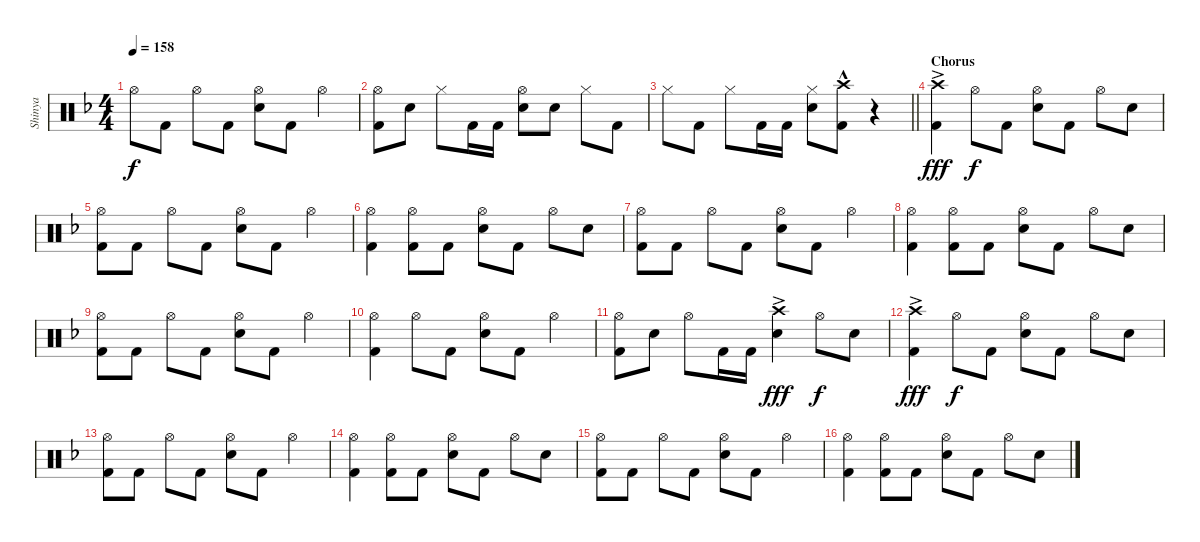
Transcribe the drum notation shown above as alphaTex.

\track ("Shinya" "Shinya") {instrument percussion}
\staff {score}
\articulation defaults
\ts (4 4)
\tempo 158
\clef neutral
\ks f "Hi-Hat (open)".8{dy f} "Kick (hit) 2".8 "Hi-Hat (open)".8 "Kick (hit) 2".8
("Hi-Hat (open)" "Snare (hit) 2").8 "Kick (hit) 2".8 "Hi-Hat (open)".4 |
("Hi-Hat (open)" "Kick (hit) 2").8 "Snare (hit) 2".8 "Hi-Hat (closed)".8 "Kick (hit) 2".16 "Kick (hit) 2".16 ("Hi-Hat (open)" "Snare (hit) 2").8 "Snare (hit) 2".8 "Hi-Hat (closed)".8 "Kick (hit) 2".8 |
\barLineRight lightlight "Hi-Hat (closed)".8 "Kick (hit) 2".8 "Hi-Hat (closed)".8 "Kick (hit) 2".16 "Kick (hit) 2".16
("Hi-Hat (closed)" "Snare (hit) 2").8 ("Crash high (hit)" "Kick (hit) 2"{hac}).8 r.4 |
\section ("" "Chorus")
("Crash high (hit)"{ac} "Kick (hit) 2").4{dy fff} "Hi-Hat (open)".8{dy f} "Kick (hit) 2".8 ("Hi-Hat (open)" "Snare (hit) 2").8 "Kick (hit) 2".8 "Hi-Hat (open)".8 "Snare (hit) 2".8 |
("Hi-Hat (open)" "Kick (hit) 2").8 "Kick (hit) 2".8 "Hi-Hat (open)".8 "Kick (hit) 2".8 ("Hi-Hat (open)" "Snare (hit) 2").8 "Kick (hit) 2".8 "Hi-Hat (open)".4 |
("Hi-Hat (open)" "Kick (hit) 2").4 ("Hi-Hat (open)" "Kick (hit) 2").8 "Kick (hit) 2".8 ("Hi-Hat (open)" "Snare (hit) 2").8 "Kick (hit) 2".8 "Hi-Hat (open)".8 "Snare (hit) 2".8 |
("Hi-Hat (open)" "Kick (hit) 2").8 "Kick (hit) 2".8 "Hi-Hat (open)".8 "Kick (hit) 2".8 ("Hi-Hat (open)" "Snare (hit) 2").8 "Kick (hit) 2".8 "Hi-Hat (open)".4 |
("Hi-Hat (open)" "Kick (hit) 2").4 ("Hi-Hat (open)" "Kick (hit) 2").8 "Kick (hit) 2".8 ("Hi-Hat (open)" "Snare (hit) 2").8 "Kick (hit) 2".8 "Hi-Hat (open)".8 "Snare (hit) 2".8 |
("Hi-Hat (open)" "Kick (hit) 2").8 "Kick (hit) 2".8 "Hi-Hat (open)".8 "Kick (hit) 2".8 ("Hi-Hat (open)" "Snare (hit) 2").8 "Kick (hit) 2".8 "Hi-Hat (open)".4 |
("Hi-Hat (open)" "Kick (hit) 2").4 "Hi-Hat (open)".8 "Kick (hit) 2".8 ("Hi-Hat (open)" "Snare (hit) 2").8 "Kick (hit) 2".8 "Hi-Hat (open)".4 |
("Hi-Hat (open)" "Kick (hit) 2").8 "Snare (hit) 2".8 "Hi-Hat (open)".8 "Kick (hit) 2".16 "Kick (hit) 2".16 ("Crash high (hit)"{ac} "Snare (hit) 2").4{dy fff} "Hi-Hat (open)".8{dy f} "Snare (hit) 2".8 |
("Crash high (hit)"{ac} "Kick (hit) 2").4{dy fff} "Hi-Hat (open)".8{dy f} "Kick (hit) 2".8 ("Hi-Hat (open)" "Snare (hit) 2").8 "Kick (hit) 2".8 "Hi-Hat (open)".8 "Snare (hit) 2".8 |
("Hi-Hat (open)" "Kick (hit) 2").8 "Kick (hit) 2".8 "Hi-Hat (open)".8 "Kick (hit) 2".8 ("Hi-Hat (open)" "Snare (hit) 2").8 "Kick (hit) 2".8 "Hi-Hat (open)".4 |
("Hi-Hat (open)" "Kick (hit) 2").4 ("Hi-Hat (open)" "Kick (hit) 2").8 "Kick (hit) 2".8 ("Hi-Hat (open)" "Snare (hit) 2").8 "Kick (hit) 2".8 "Hi-Hat (open)".8 "Snare (hit) 2".8 |
("Hi-Hat (open)" "Kick (hit) 2").8 "Kick (hit) 2".8 "Hi-Hat (open)".8 "Kick (hit) 2".8 ("Hi-Hat (open)" "Snare (hit) 2").8 "Kick (hit) 2".8 "Hi-Hat (open)".4 |
("Hi-Hat (open)" "Kick (hit) 2").4 ("Hi-Hat (open)" "Kick (hit) 2").8 "Kick (hit) 2".8 ("Hi-Hat (open)" "Snare (hit) 2").8 "Kick (hit) 2".8 "Hi-Hat (open)".8 "Snare (hit) 2".8
